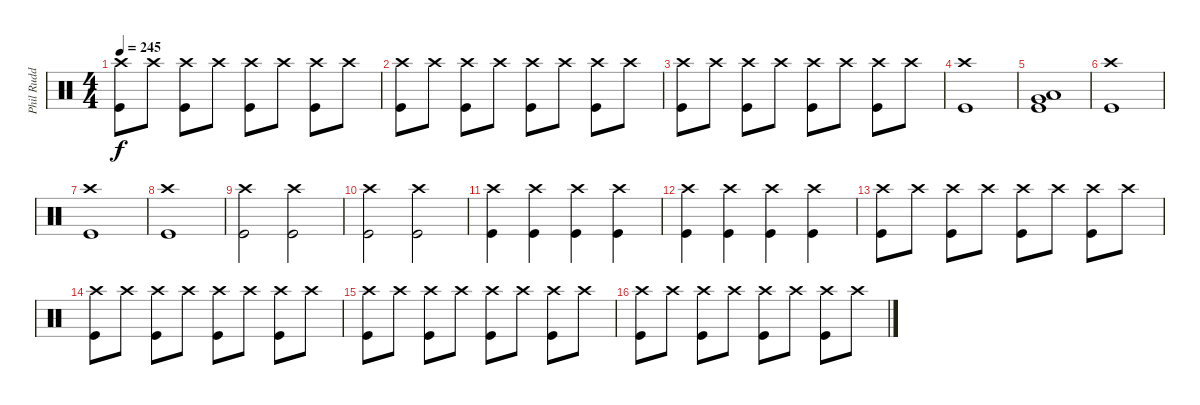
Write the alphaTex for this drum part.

\track ("Phil Rudd" "Phil Rudd") {instrument percussion}
\staff {score}
\articulation defaults
\ts (4 4)
\tempo 245
\clef neutral
\ks c
("Crash high (hit)" "Kick (hit)").8{dy f} "Crash high (hit)".8 ("Crash high (hit)" "Kick (hit)").8 "Crash high (hit)".8 ("Crash high (hit)" "Kick (hit)").8 "Crash high (hit)".8 ("Crash high (hit)" "Kick (hit)").8 "Crash high (hit)".8 |
("Crash high (hit)" "Kick (hit)").8 "Crash high (hit)".8 ("Crash high (hit)" "Kick (hit)").8 "Crash high (hit)".8 ("Crash high (hit)" "Kick (hit)").8 "Crash high (hit)".8 ("Crash high (hit)" "Kick (hit)").8 "Crash high (hit)".8 |
("Crash high (hit)" "Kick (hit)").8 "Crash high (hit)".8 ("Crash high (hit)" "Kick (hit)").8 "Crash high (hit)".8 ("Crash high (hit)" "Kick (hit)").8 "Crash high (hit)".8 ("Crash high (hit)" "Kick (hit)").8 "Crash high (hit)".8 |
("Crash high (hit)" "Kick (hit)").1 |
("Very Low Tom (hit)" "Low Floor Tom (hit)" "Kick (hit)").1 |
("Crash high (hit)" "Kick (hit)").1 |
("Crash high (hit)" "Kick (hit)").1 |
("Crash high (hit)" "Kick (hit)").1 |
("Crash high (hit)" "Kick (hit)").2 ("Crash high (hit)" "Kick (hit)").2 |
("Crash high (hit)" "Kick (hit)").2 ("Crash high (hit)" "Kick (hit)").2 |
("Crash high (hit)" "Kick (hit)").4 ("Crash high (hit)" "Kick (hit)").4 ("Crash high (hit)" "Kick (hit)").4 ("Crash high (hit)" "Kick (hit)").4 |
("Crash high (hit)" "Kick (hit)").4 ("Crash high (hit)" "Kick (hit)").4 ("Crash high (hit)" "Kick (hit)").4 ("Crash high (hit)" "Kick (hit)").4 |
("Crash high (hit)" "Kick (hit)").8 "Crash high (hit)".8 ("Crash high (hit)" "Kick (hit)").8 "Crash high (hit)".8 ("Crash high (hit)" "Kick (hit)").8 "Crash high (hit)".8 ("Crash high (hit)" "Kick (hit)").8 "Crash high (hit)".8 |
("Crash high (hit)" "Kick (hit)").8 "Crash high (hit)".8 ("Crash high (hit)" "Kick (hit)").8 "Crash high (hit)".8 ("Crash high (hit)" "Kick (hit)").8 "Crash high (hit)".8 ("Crash high (hit)" "Kick (hit)").8 "Crash high (hit)".8 |
("Crash high (hit)" "Kick (hit)").8 "Crash high (hit)".8 ("Crash high (hit)" "Kick (hit)").8 "Crash high (hit)".8 ("Crash high (hit)" "Kick (hit)").8 "Crash high (hit)".8 ("Crash high (hit)" "Kick (hit)").8 "Crash high (hit)".8 |
("Crash high (hit)" "Kick (hit)").8 "Crash high (hit)".8 ("Crash high (hit)" "Kick (hit)").8 "Crash high (hit)".8 ("Crash high (hit)" "Kick (hit)").8 "Crash high (hit)".8 ("Crash high (hit)" "Kick (hit)").8 "Crash high (hit)".8
